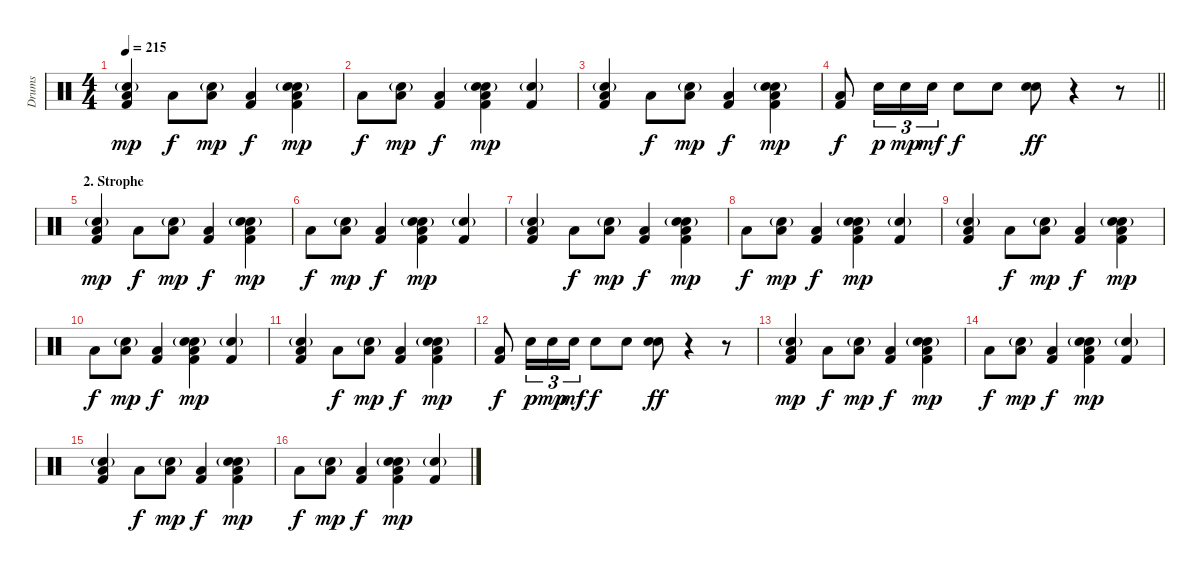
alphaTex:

\track ("Drums" "Drums") {instrument percussion}
\staff {score}
\articulation defaults
\ts (4 4)
\tempo 215
\clef neutral
\ks c
("Electric Snare (hit)"{g} "Low Floor Tom (hit)" "Kick (hit) 2").4{dy mp} "Low Floor Tom (hit)".8{dy f} ("Electric Snare (hit)"{g} "Low Floor Tom (hit)").8{dy mp} ("Low Floor Tom (hit)" "Kick (hit) 2").4{dy f} ("Electric Snare (hit)" "Kick (hit) 2" "Low Floor Tom (hit)" "Snare (hit) 2"{g}).4{dy mp} |
"Low Floor Tom (hit)".8{dy f} ("Electric Snare (hit)"{g} "Low Floor Tom (hit)").8{dy mp} ("Low Floor Tom (hit)" "Kick (hit) 2").4{dy f} ("Snare (hit) 2"{g} "Electric Snare (hit)" "Kick (hit) 2" "Low Floor Tom (hit)").4{dy mp} ("Electric Snare (hit)"{g} "Kick (hit) 2").4 |
("Electric Snare (hit)"{g} "Low Floor Tom (hit)" "Kick (hit) 2").4 "Low Floor Tom (hit)".8{dy f} ("Electric Snare (hit)"{g} "Low Floor Tom (hit)").8{dy mp} ("Low Floor Tom (hit)" "Kick (hit) 2").4{dy f} ("Electric Snare (hit)" "Kick (hit) 2" "Low Floor Tom (hit)" "Snare (hit) 2"{g}).4{dy mp} |
\barLineRight lightlight
("Low Floor Tom (hit)" "Kick (hit) 2").8{dy f} "Snare (hit) 2".16{tu (3 2) dy p} "Snare (hit) 2".16{tu (3 2) dy mp} "Snare (hit) 2".16{tu (3 2) dy mf} "Snare (hit) 2".8{dy f} "Snare (hit) 2".8 ("Electric Snare (hit)" "Snare (hit) 2").8{dy ff} r.4 r.8 |
\section ("" "2. Strophe")
("Electric Snare (hit)"{g} "Low Floor Tom (hit)" "Kick (hit) 2").4{dy mp} "Low Floor Tom (hit)".8{dy f} ("Electric Snare (hit)"{g} "Low Floor Tom (hit)").8{dy mp} ("Low Floor Tom (hit)" "Kick (hit) 2").4{dy f} ("Electric Snare (hit)" "Kick (hit) 2" "Low Floor Tom (hit)" "Snare (hit) 2"{g}).4{dy mp} |
"Low Floor Tom (hit)".8{dy f} ("Electric Snare (hit)"{g} "Low Floor Tom (hit)").8{dy mp} ("Low Floor Tom (hit)" "Kick (hit) 2").4{dy f} ("Snare (hit) 2"{g} "Electric Snare (hit)" "Kick (hit) 2" "Low Floor Tom (hit)").4{dy mp} ("Electric Snare (hit)"{g} "Kick (hit) 2").4 |
("Electric Snare (hit)"{g} "Low Floor Tom (hit)" "Kick (hit) 2").4 "Low Floor Tom (hit)".8{dy f} ("Electric Snare (hit)"{g} "Low Floor Tom (hit)").8{dy mp} ("Low Floor Tom (hit)" "Kick (hit) 2").4{dy f} ("Electric Snare (hit)" "Kick (hit) 2" "Low Floor Tom (hit)" "Snare (hit) 2"{g}).4{dy mp} |
"Low Floor Tom (hit)".8{dy f} ("Electric Snare (hit)"{g} "Low Floor Tom (hit)").8{dy mp} ("Low Floor Tom (hit)" "Kick (hit) 2").4{dy f} ("Snare (hit) 2"{g} "Electric Snare (hit)" "Kick (hit) 2" "Low Floor Tom (hit)").4{dy mp} ("Electric Snare (hit)"{g} "Kick (hit) 2").4 |
("Electric Snare (hit)"{g} "Low Floor Tom (hit)" "Kick (hit) 2").4 "Low Floor Tom (hit)".8{dy f} ("Electric Snare (hit)"{g} "Low Floor Tom (hit)").8{dy mp} ("Low Floor Tom (hit)" "Kick (hit) 2").4{dy f} ("Electric Snare (hit)" "Kick (hit) 2" "Low Floor Tom (hit)" "Snare (hit) 2"{g}).4{dy mp} |
"Low Floor Tom (hit)".8{dy f} ("Electric Snare (hit)"{g} "Low Floor Tom (hit)").8{dy mp} ("Low Floor Tom (hit)" "Kick (hit) 2").4{dy f} ("Snare (hit) 2"{g} "Electric Snare (hit)" "Kick (hit) 2" "Low Floor Tom (hit)").4{dy mp} ("Electric Snare (hit)"{g} "Kick (hit) 2").4 |
("Electric Snare (hit)"{g} "Low Floor Tom (hit)" "Kick (hit) 2").4 "Low Floor Tom (hit)".8{dy f} ("Electric Snare (hit)"{g} "Low Floor Tom (hit)").8{dy mp} ("Low Floor Tom (hit)" "Kick (hit) 2").4{dy f} ("Electric Snare (hit)" "Kick (hit) 2" "Low Floor Tom (hit)" "Snare (hit) 2"{g}).4{dy mp} |
("Low Floor Tom (hit)" "Kick (hit) 2").8{dy f} "Snare (hit) 2".16{tu (3 2) dy p} "Snare (hit) 2".16{tu (3 2) dy mp} "Snare (hit) 2".16{tu (3 2) dy mf} "Snare (hit) 2".8{dy f} "Snare (hit) 2".8 ("Electric Snare (hit)" "Snare (hit) 2").8{dy ff} r.4 r.8 |
("Electric Snare (hit)"{g} "Low Floor Tom (hit)" "Kick (hit) 2").4{dy mp} "Low Floor Tom (hit)".8{dy f} ("Electric Snare (hit)"{g} "Low Floor Tom (hit)").8{dy mp} ("Low Floor Tom (hit)" "Kick (hit) 2").4{dy f} ("Electric Snare (hit)" "Kick (hit) 2" "Low Floor Tom (hit)" "Snare (hit) 2"{g}).4{dy mp} |
"Low Floor Tom (hit)".8{dy f} ("Electric Snare (hit)"{g} "Low Floor Tom (hit)").8{dy mp} ("Low Floor Tom (hit)" "Kick (hit) 2").4{dy f} ("Snare (hit) 2"{g} "Electric Snare (hit)" "Kick (hit) 2" "Low Floor Tom (hit)").4{dy mp} ("Electric Snare (hit)"{g} "Kick (hit) 2").4 |
("Electric Snare (hit)"{g} "Low Floor Tom (hit)" "Kick (hit) 2").4 "Low Floor Tom (hit)".8{dy f} ("Electric Snare (hit)"{g} "Low Floor Tom (hit)").8{dy mp} ("Low Floor Tom (hit)" "Kick (hit) 2").4{dy f} ("Electric Snare (hit)" "Kick (hit) 2" "Low Floor Tom (hit)" "Snare (hit) 2"{g}).4{dy mp} |
"Low Floor Tom (hit)".8{dy f} ("Electric Snare (hit)"{g} "Low Floor Tom (hit)").8{dy mp} ("Low Floor Tom (hit)" "Kick (hit) 2").4{dy f} ("Snare (hit) 2"{g} "Electric Snare (hit)" "Kick (hit) 2" "Low Floor Tom (hit)").4{dy mp} ("Electric Snare (hit)"{g} "Kick (hit) 2").4
